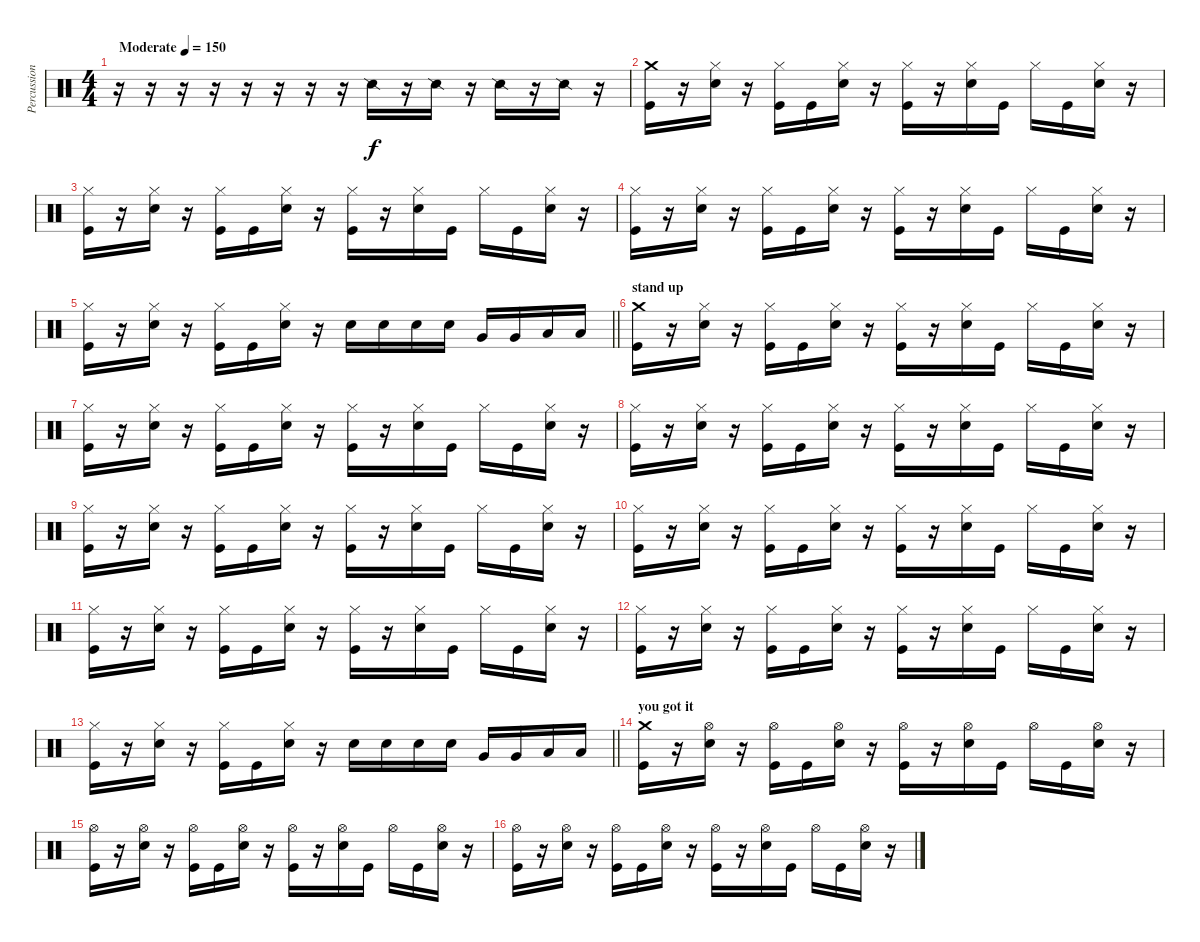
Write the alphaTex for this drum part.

\track ("Percussion" "Percussion") {instrument percussion}
\staff {score}
\articulation defaults
\ts (4 4)
\tempo (150 "Moderate")
\clef neutral
\ks c
r.16{dy f} r.16 r.16 r.16 r.16 r.16 r.16 r.16 "Snare (side stick) 2".16 r.16 "Snare (side stick) 2".16 r.16 "Snare (side stick) 2".16 r.16 "Snare (side stick) 2".16 r.16 |
("Crash medium (hit)" "Kick (hit)").16 r.16 ("Hi-Hat (closed)" "Snare (hit) 2").16 r.16 ("Hi-Hat (closed)" "Kick (hit)").16 "Kick (hit)".16 ("Hi-Hat (closed)" "Snare (hit) 2").16 r.16 ("Hi-Hat (closed)" "Kick (hit)").16 r.16 ("Hi-Hat (closed)" "Snare (hit) 2").16 "Kick (hit)".16 "Hi-Hat (closed)".16 "Kick (hit)".16 ("Hi-Hat (closed)" "Snare (hit) 2").16 r.16 |
("Hi-Hat (closed)" "Kick (hit)").16 r.16 ("Hi-Hat (closed)" "Snare (hit) 2").16 r.16 ("Hi-Hat (closed)" "Kick (hit)").16 "Kick (hit)".16 ("Hi-Hat (closed)" "Snare (hit) 2").16 r.16 ("Hi-Hat (closed)" "Kick (hit)").16 r.16 ("Hi-Hat (closed)" "Snare (hit) 2").16 "Kick (hit)".16 "Hi-Hat (closed)".16 "Kick (hit)".16 ("Hi-Hat (closed)" "Snare (hit) 2").16 r.16 |
("Hi-Hat (closed)" "Kick (hit)").16 r.16 ("Hi-Hat (closed)" "Snare (hit) 2").16 r.16 ("Hi-Hat (closed)" "Kick (hit)").16 "Kick (hit)".16 ("Hi-Hat (closed)" "Snare (hit) 2").16 r.16 ("Hi-Hat (closed)" "Kick (hit)").16 r.16 ("Hi-Hat (closed)" "Snare (hit) 2").16 "Kick (hit)".16 "Hi-Hat (closed)".16 "Kick (hit)".16 ("Hi-Hat (closed)" "Snare (hit) 2").16 r.16 |
\barLineRight lightlight
("Hi-Hat (closed)" "Kick (hit)").16 r.16 ("Hi-Hat (closed)" "Snare (hit) 2").16 r.16 ("Hi-Hat (closed)" "Kick (hit)").16 "Kick (hit)".16 ("Hi-Hat (closed)" "Snare (hit) 2").16 r.16 "Snare (hit) 2".16 "Snare (hit) 2".16 "Snare (hit) 2".16 "Snare (hit) 2".16 "Very Low Tom (hit)".16 "Very Low Tom (hit)".16 "Low Floor Tom (hit)".16 "Low Floor Tom (hit)".16 |
\section ("" "stand up")
("Crash medium (hit)" "Kick (hit)").16 r.16 ("Hi-Hat (closed)" "Snare (hit) 2").16 r.16 ("Hi-Hat (closed)" "Kick (hit)").16 "Kick (hit)".16 ("Hi-Hat (closed)" "Snare (hit) 2").16 r.16 ("Hi-Hat (closed)" "Kick (hit)").16 r.16 ("Hi-Hat (closed)" "Snare (hit) 2").16 "Kick (hit)".16 "Hi-Hat (closed)".16 "Kick (hit)".16 ("Hi-Hat (closed)" "Snare (hit) 2").16 r.16 |
("Hi-Hat (closed)" "Kick (hit)").16 r.16 ("Hi-Hat (closed)" "Snare (hit) 2").16 r.16 ("Hi-Hat (closed)" "Kick (hit)").16 "Kick (hit)".16 ("Hi-Hat (closed)" "Snare (hit) 2").16 r.16 ("Hi-Hat (closed)" "Kick (hit)").16 r.16 ("Hi-Hat (closed)" "Snare (hit) 2").16 "Kick (hit)".16 "Hi-Hat (closed)".16 "Kick (hit)".16 ("Hi-Hat (closed)" "Snare (hit) 2").16 r.16 |
("Hi-Hat (closed)" "Kick (hit)").16 r.16 ("Hi-Hat (closed)" "Snare (hit) 2").16 r.16 ("Hi-Hat (closed)" "Kick (hit)").16 "Kick (hit)".16 ("Hi-Hat (closed)" "Snare (hit) 2").16 r.16 ("Hi-Hat (closed)" "Kick (hit)").16 r.16 ("Hi-Hat (closed)" "Snare (hit) 2").16 "Kick (hit)".16 "Hi-Hat (closed)".16 "Kick (hit)".16 ("Hi-Hat (closed)" "Snare (hit) 2").16 r.16 |
("Hi-Hat (closed)" "Kick (hit)").16 r.16 ("Hi-Hat (closed)" "Snare (hit) 2").16 r.16 ("Hi-Hat (closed)" "Kick (hit)").16 "Kick (hit)".16 ("Hi-Hat (closed)" "Snare (hit) 2").16 r.16 ("Hi-Hat (closed)" "Kick (hit)").16 r.16 ("Hi-Hat (closed)" "Snare (hit) 2").16 "Kick (hit)".16 "Hi-Hat (closed)".16 "Kick (hit)".16 ("Hi-Hat (closed)" "Snare (hit) 2").16 r.16 |
("Hi-Hat (closed)" "Kick (hit)").16 r.16 ("Hi-Hat (closed)" "Snare (hit) 2").16 r.16 ("Hi-Hat (closed)" "Kick (hit)").16 "Kick (hit)".16 ("Hi-Hat (closed)" "Snare (hit) 2").16 r.16 ("Hi-Hat (closed)" "Kick (hit)").16 r.16 ("Hi-Hat (closed)" "Snare (hit) 2").16 "Kick (hit)".16 "Hi-Hat (closed)".16 "Kick (hit)".16 ("Hi-Hat (closed)" "Snare (hit) 2").16 r.16 |
("Hi-Hat (closed)" "Kick (hit)").16 r.16 ("Hi-Hat (closed)" "Snare (hit) 2").16 r.16 ("Hi-Hat (closed)" "Kick (hit)").16 "Kick (hit)".16 ("Hi-Hat (closed)" "Snare (hit) 2").16 r.16 ("Hi-Hat (closed)" "Kick (hit)").16 r.16 ("Hi-Hat (closed)" "Snare (hit) 2").16 "Kick (hit)".16 "Hi-Hat (closed)".16 "Kick (hit)".16 ("Hi-Hat (closed)" "Snare (hit) 2").16 r.16 |
("Hi-Hat (closed)" "Kick (hit)").16 r.16 ("Hi-Hat (closed)" "Snare (hit) 2").16 r.16 ("Hi-Hat (closed)" "Kick (hit)").16 "Kick (hit)".16 ("Hi-Hat (closed)" "Snare (hit) 2").16 r.16 ("Hi-Hat (closed)" "Kick (hit)").16 r.16 ("Hi-Hat (closed)" "Snare (hit) 2").16 "Kick (hit)".16 "Hi-Hat (closed)".16 "Kick (hit)".16 ("Hi-Hat (closed)" "Snare (hit) 2").16 r.16 |
\barLineRight lightlight
("Hi-Hat (closed)" "Kick (hit)").16 r.16 ("Hi-Hat (closed)" "Snare (hit) 2").16 r.16 ("Hi-Hat (closed)" "Kick (hit)").16 "Kick (hit)".16 ("Hi-Hat (closed)" "Snare (hit) 2").16 r.16 "Snare (hit) 2".16 "Snare (hit) 2".16 "Snare (hit) 2".16 "Snare (hit) 2".16 "Very Low Tom (hit)".16 "Very Low Tom (hit)".16 "Low Floor Tom (hit)".16 "Low Floor Tom (hit)".16 |
\section ("" "you got it")
("Crash medium (hit)" "Kick (hit)").16 r.16 ("Hi-Hat (open)" "Snare (hit) 2").16 r.16 ("Hi-Hat (open)" "Kick (hit)").16 "Kick (hit)".16 ("Hi-Hat (open)" "Snare (hit) 2").16 r.16 ("Hi-Hat (open)" "Kick (hit)").16 r.16 ("Hi-Hat (open)" "Snare (hit) 2").16 "Kick (hit)".16 "Hi-Hat (open)".16 "Kick (hit)".16 ("Hi-Hat (open)" "Snare (hit) 2").16 r.16 |
("Hi-Hat (open)" "Kick (hit)").16 r.16 ("Hi-Hat (open)" "Snare (hit) 2").16 r.16 ("Hi-Hat (open)" "Kick (hit)").16 "Kick (hit)".16 ("Hi-Hat (open)" "Snare (hit) 2").16 r.16 ("Hi-Hat (open)" "Kick (hit)").16 r.16 ("Hi-Hat (open)" "Snare (hit) 2").16 "Kick (hit)".16 "Hi-Hat (open)".16 "Kick (hit)".16 ("Hi-Hat (open)" "Snare (hit) 2").16 r.16 |
("Hi-Hat (open)" "Kick (hit)").16 r.16 ("Hi-Hat (open)" "Snare (hit) 2").16 r.16 ("Hi-Hat (open)" "Kick (hit)").16 "Kick (hit)".16 ("Hi-Hat (open)" "Snare (hit) 2").16 r.16 ("Hi-Hat (open)" "Kick (hit)").16 r.16 ("Hi-Hat (open)" "Snare (hit) 2").16 "Kick (hit)".16 "Hi-Hat (open)".16 "Kick (hit)".16 ("Hi-Hat (open)" "Snare (hit) 2").16 r.16
